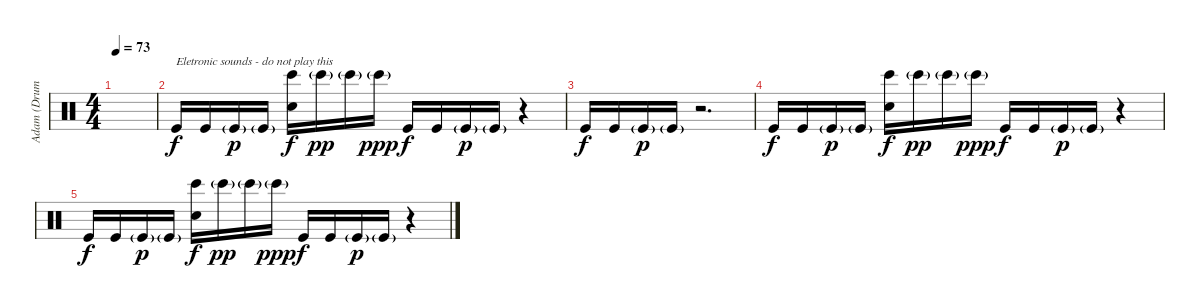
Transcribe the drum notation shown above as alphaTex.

\track ("Adam (Drums)" "Adam (Drum") {instrument percussion}
\staff {score}
\articulation defaults
\ts (4 4)
\tempo 73
\clef neutral
\ks c
|
"Kick (hit)".16{txt "Eletronic sounds - do not play this"} "Kick (hit)".16 "Kick (hit)"{g}.16{dy p} "Kick (hit)"{g}.16 ("Hand Clap (hit)" "Bongo High (hit)").16{dy f} "Bongo High (hit)"{g}.16{dy pp} "Bongo High (hit)"{g}.16 "Bongo High (hit)"{g}.16{dy ppp} "Kick (hit)".16{dy f} "Kick (hit)".16 "Kick (hit)"{g}.16{dy p} "Kick (hit)"{g}.16 r.4 |
"Kick (hit)".16{dy f} "Kick (hit)".16 "Kick (hit)"{g}.16{dy p} "Kick (hit)"{g}.16 r.2{d} |
"Kick (hit)".16{dy f} "Kick (hit)".16 "Kick (hit)"{g}.16{dy p} "Kick (hit)"{g}.16 ("Hand Clap (hit)" "Bongo High (hit)").16{dy f} "Bongo High (hit)"{g}.16{dy pp} "Bongo High (hit)"{g}.16 "Bongo High (hit)"{g}.16{dy ppp} "Kick (hit)".16{dy f} "Kick (hit)".16 "Kick (hit)"{g}.16{dy p} "Kick (hit)"{g}.16 r.4 |
"Kick (hit)".16{dy f} "Kick (hit)".16 "Kick (hit)"{g}.16{dy p} "Kick (hit)"{g}.16 ("Hand Clap (hit)" "Bongo High (hit)").16{dy f} "Bongo High (hit)"{g}.16{dy pp} "Bongo High (hit)"{g}.16 "Bongo High (hit)"{g}.16{dy ppp} "Kick (hit)".16{dy f} "Kick (hit)".16 "Kick (hit)"{g}.16{dy p} "Kick (hit)"{g}.16 r.4
